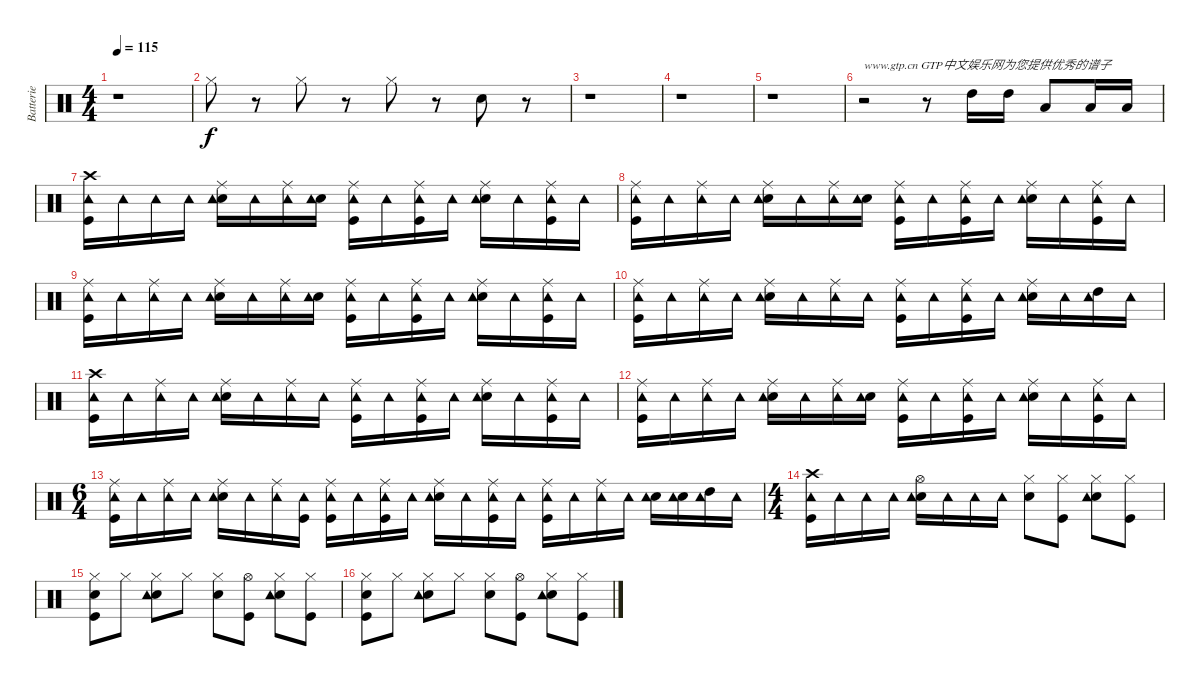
\track ("Batterie" "Batterie") {instrument percussion}
\staff {score}
\articulation defaults
\ts (4 4)
\tempo 115
\clef neutral
\ks c
r.1{dy f} |
"Hi-Hat (closed)".8 r.8 "Hi-Hat (closed)".8 r.8 "Hi-Hat (closed)".8 r.8 "Electric Snare (hit)".8 r.8 |
r.1 |
r.1 |
r.1 |
r.2{txt "www.gtp.cn GTP中文娱乐网为您提供优秀的谱子"} r.8 "High Tom (hit)".16 "High Tom (hit)".16 "Low Tom (hit)".8 "Low Tom (hit)".16 "Low Tom (hit)".16 |
("Crash high (hit)" "Kick (hit)" "Tambourine (hit)").16 "Tambourine (hit)".16 "Tambourine (hit)".16 "Tambourine (hit)".16 ("Ride (middle)" "Electric Snare (hit)" "Tambourine (hit)").16 "Tambourine (hit)".16 ("Ride (middle)" "Tambourine (hit)").16 ("Electric Snare (hit)" "Tambourine (hit)").16 ("Kick (hit)" "Ride (middle)" "Tambourine (hit)").16 "Tambourine (hit)".16 ("Ride (middle)" "Kick (hit)" "Tambourine (hit)").16 "Tambourine (hit)".16 ("Electric Snare (hit)" "Ride (middle)" "Tambourine (hit)").16 "Tambourine (hit)".16 ("Ride (middle)" "Kick (hit)" "Tambourine (hit)").16 "Tambourine (hit)".16 |
("Kick (hit)" "Ride (middle)" "Tambourine (hit)").16 "Tambourine (hit)".16 ("Ride (middle)" "Tambourine (hit)").16 "Tambourine (hit)".16 ("Electric Snare (hit)" "Ride (middle)" "Tambourine (hit)").16 "Tambourine (hit)".16 ("Ride (middle)" "Tambourine (hit)").16 ("Electric Snare (hit)" "Tambourine (hit)").16 ("Kick (hit)" "Ride (middle)" "Tambourine (hit)").16 "Tambourine (hit)".16 ("Ride (middle)" "Kick (hit)" "Tambourine (hit)").16 "Tambourine (hit)".16 ("Ride (middle)" "Electric Snare (hit)" "Tambourine (hit)").16 "Tambourine (hit)".16 ("Ride (middle)" "Kick (hit)" "Tambourine (hit)").16 "Tambourine (hit)".16 |
("Ride (middle)" "Kick (hit)" "Tambourine (hit)").16 "Tambourine (hit)".16 ("Ride (middle)" "Tambourine (hit)").16 "Tambourine (hit)".16 ("Ride (middle)" "Electric Snare (hit)" "Tambourine (hit)").16 "Tambourine (hit)".16 ("Ride (middle)" "Tambourine (hit)").16 ("Electric Snare (hit)" "Tambourine (hit)").16 ("Ride (middle)" "Kick (hit)" "Tambourine (hit)").16 "Tambourine (hit)".16 ("Ride (middle)" "Kick (hit)" "Tambourine (hit)").16 "Tambourine (hit)".16 ("Electric Snare (hit)" "Ride (middle)" "Tambourine (hit)").16 "Tambourine (hit)".16 ("Ride (middle)" "Kick (hit)" "Tambourine (hit)").16 "Tambourine (hit)".16 |
("Ride (middle)" "Kick (hit)" "Tambourine (hit)").16 "Tambourine (hit)".16 ("Ride (middle)" "Tambourine (hit)").16 "Tambourine (hit)".16 ("Electric Snare (hit)" "Ride (middle)" "Tambourine (hit)").16 "Tambourine (hit)".16 ("Ride (middle)" "Tambourine (hit)").16 "Tambourine (hit)".16 ("Kick (hit)" "Ride (middle)" "Tambourine (hit)").16 "Tambourine (hit)".16 ("Kick (hit)" "Ride (middle)" "Tambourine (hit)").16 "Tambourine (hit)".16 ("Electric Snare (hit)" "Ride (middle)" "Tambourine (hit)").16 "Tambourine (hit)".16 ("High Tom (hit)" "Tambourine (hit)").16 "Tambourine (hit)".16 |
("Crash high (hit)" "Kick (hit)" "Tambourine (hit)").16 "Tambourine (hit)".16 ("Ride (middle)" "Tambourine (hit)").16 "Tambourine (hit)".16 ("Electric Snare (hit)" "Ride (middle)" "Tambourine (hit)").16 "Tambourine (hit)".16 ("Ride (middle)" "Tambourine (hit)").16 "Tambourine (hit)".16 ("Kick (hit)" "Ride (middle)" "Tambourine (hit)").16 "Tambourine (hit)".16 ("Ride (middle)" "Kick (hit)" "Tambourine (hit)").16 "Tambourine (hit)".16 ("Ride (middle)" "Electric Snare (hit)" "Tambourine (hit)").16 "Tambourine (hit)".16 ("Kick (hit)" "Ride (middle)" "Tambourine (hit)").16 "Tambourine (hit)".16 |
("Ride (middle)" "Kick (hit)" "Tambourine (hit)").16 "Tambourine (hit)".16 ("Ride (middle)" "Tambourine (hit)").16 "Tambourine (hit)".16 ("Electric Snare (hit)" "Ride (middle)" "Tambourine (hit)").16 "Tambourine (hit)".16 ("Ride (middle)" "Tambourine (hit)").16 ("Electric Snare (hit)" "Tambourine (hit)").16 ("Ride (middle)" "Kick (hit)" "Tambourine (hit)").16 "Tambourine (hit)".16 ("Kick (hit)" "Ride (middle)" "Tambourine (hit)").16 "Tambourine (hit)".16 ("Ride (middle)" "Electric Snare (hit)" "Tambourine (hit)").16 "Tambourine (hit)".16 ("Kick (hit)" "Ride (middle)" "Tambourine (hit)").16 "Tambourine (hit)".16 |
\ts (6 4)
("Ride (middle)" "Kick (hit)" "Tambourine (hit)").16 "Tambourine (hit)".16 ("Ride (middle)" "Tambourine (hit)").16 "Tambourine (hit)".16 ("Electric Snare (hit)" "Ride (middle)" "Tambourine (hit)").16 "Tambourine (hit)".16 ("Ride (middle)" "Tambourine (hit)").16 ("Kick (hit)" "Tambourine (hit)").16 ("Kick (hit)" "Ride (middle)" "Tambourine (hit)").16 "Tambourine (hit)".16 ("Ride (middle)" "Kick (hit)" "Tambourine (hit)").16 "Tambourine (hit)".16 ("Ride (middle)" "Electric Snare (hit)" "Tambourine (hit)").16 "Tambourine (hit)".16 ("Ride (middle)" "Kick (hit)" "Tambourine (hit)").16 "Tambourine (hit)".16 ("Ride (middle)" "Kick (hit)" "Tambourine (hit)").16 "Tambourine (hit)".16 ("Ride (middle)" "Tambourine (hit)").16 "Tambourine (hit)".16 ("Electric Snare (hit)" "Tambourine (hit)").16 ("Electric Snare (hit)" "Tambourine (hit)").16 ("High Tom (hit)" "Tambourine (hit)").16 "Tambourine (hit)".16 |
\ts (4 4)
("Kick (hit)" "Crash high (hit)" "Tambourine (hit)").16 "Tambourine (hit)".16 "Tambourine (hit)".16 "Tambourine (hit)".16 ("Hi-Hat (open)" "Electric Snare (hit)" "Tambourine (hit)").16 "Tambourine (hit)".16 "Tambourine (hit)".16 "Tambourine (hit)".16 ("Hi-Hat (closed)" "Electric Snare (hit)").8 ("Kick (hit)" "Hi-Hat (closed)").8 ("Hi-Hat (closed)" "Electric Snare (hit)" "Tambourine (hit)").8 ("Hi-Hat (closed)" "Kick (hit)").8 |
("Hi-Hat (closed)" "Electric Snare (hit)" "Kick (hit)").8 "Hi-Hat (closed)".8 ("Hi-Hat (closed)" "Electric Snare (hit)" "Tambourine (hit)").8 "Hi-Hat (closed)".8 ("Hi-Hat (closed)" "Electric Snare (hit)").8 ("Kick (hit)" "Hi-Hat (open)").8 ("Hi-Hat (closed)" "Electric Snare (hit)" "Tambourine (hit)").8 ("Hi-Hat (closed)" "Kick (hit)").8 |
("Hi-Hat (closed)" "Electric Snare (hit)" "Kick (hit)").8 "Hi-Hat (closed)".8 ("Hi-Hat (closed)" "Electric Snare (hit)" "Tambourine (hit)").8 "Hi-Hat (closed)".8 ("Electric Snare (hit)" "Hi-Hat (closed)").8 ("Kick (hit)" "Hi-Hat (open)").8 ("Hi-Hat (closed)" "Electric Snare (hit)" "Tambourine (hit)").8 ("Kick (hit)" "Hi-Hat (closed)").8
